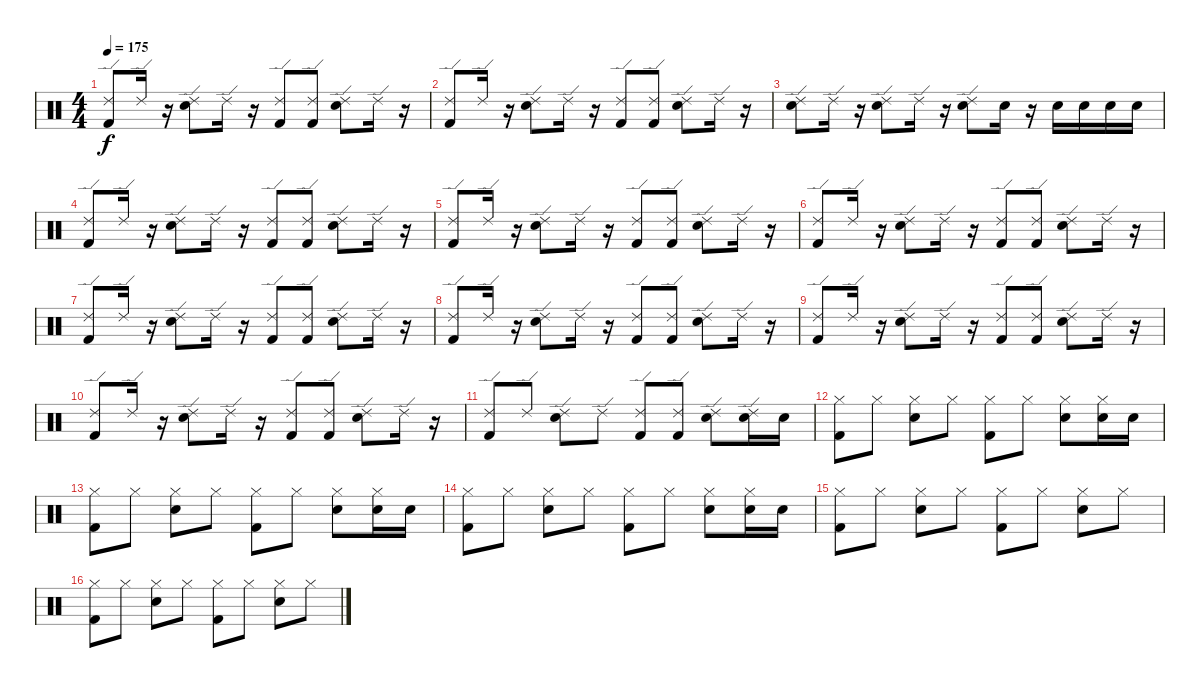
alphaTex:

\track "" {instrument percussion}
\staff {score}
\articulation defaults
\ts (4 4)
\tempo 175
\clef neutral
\ks c
("Ride (edge) 2" "Kick (hit) 2").8{dy f} "Ride (edge) 2".16 r.16 ("Ride (edge) 2" "Electric Snare (hit)").8 "Ride (edge) 2".16 r.16 ("Ride (edge) 2" "Kick (hit) 2").8 ("Ride (edge) 2" "Kick (hit) 2").8 ("Ride (edge) 2" "Electric Snare (hit)").8 "Ride (edge) 2".16 r.16 |
("Ride (edge) 2" "Kick (hit) 2").8 "Ride (edge) 2".16 r.16 ("Ride (edge) 2" "Electric Snare (hit)").8 "Ride (edge) 2".16 r.16 ("Ride (edge) 2" "Kick (hit) 2").8 ("Ride (edge) 2" "Kick (hit) 2").8 ("Ride (edge) 2" "Electric Snare (hit)").8 "Ride (edge) 2".16 r.16 |
("Ride (edge) 2" "Electric Snare (hit)").8 "Ride (edge) 2".16 r.16 ("Ride (edge) 2" "Electric Snare (hit)").8 "Ride (edge) 2".16 r.16 ("Ride (edge) 2" "Electric Snare (hit)").8 "Electric Snare (hit)".16 r.16 "Electric Snare (hit)".16 "Electric Snare (hit)".16 "Electric Snare (hit)".16 "Electric Snare (hit)".16 |
("Ride (edge) 2" "Kick (hit) 2").8 "Ride (edge) 2".16 r.16 ("Ride (edge) 2" "Electric Snare (hit)").8 "Ride (edge) 2".16 r.16 ("Ride (edge) 2" "Kick (hit) 2").8 ("Ride (edge) 2" "Kick (hit) 2").8 ("Ride (edge) 2" "Electric Snare (hit)").8 "Ride (edge) 2".16 r.16 |
("Ride (edge) 2" "Kick (hit) 2").8 "Ride (edge) 2".16 r.16 ("Ride (edge) 2" "Electric Snare (hit)").8 "Ride (edge) 2".16 r.16 ("Ride (edge) 2" "Kick (hit) 2").8 ("Ride (edge) 2" "Kick (hit) 2").8 ("Ride (edge) 2" "Electric Snare (hit)").8 "Ride (edge) 2".16 r.16 |
("Ride (edge) 2" "Kick (hit) 2").8 "Ride (edge) 2".16 r.16 ("Ride (edge) 2" "Electric Snare (hit)").8 "Ride (edge) 2".16 r.16 ("Ride (edge) 2" "Kick (hit) 2").8 ("Ride (edge) 2" "Kick (hit) 2").8 ("Ride (edge) 2" "Electric Snare (hit)").8 "Ride (edge) 2".16 r.16 |
("Ride (edge) 2" "Kick (hit) 2").8 "Ride (edge) 2".16 r.16 ("Ride (edge) 2" "Electric Snare (hit)").8 "Ride (edge) 2".16 r.16 ("Ride (edge) 2" "Kick (hit) 2").8 ("Ride (edge) 2" "Kick (hit) 2").8 ("Ride (edge) 2" "Electric Snare (hit)").8 "Ride (edge) 2".16 r.16 |
("Ride (edge) 2" "Kick (hit) 2").8 "Ride (edge) 2".16 r.16 ("Ride (edge) 2" "Electric Snare (hit)").8 "Ride (edge) 2".16 r.16 ("Ride (edge) 2" "Kick (hit) 2").8 ("Ride (edge) 2" "Kick (hit) 2").8 ("Ride (edge) 2" "Electric Snare (hit)").8 "Ride (edge) 2".16 r.16 |
("Ride (edge) 2" "Kick (hit) 2").8 "Ride (edge) 2".16 r.16 ("Ride (edge) 2" "Electric Snare (hit)").8 "Ride (edge) 2".16 r.16 ("Ride (edge) 2" "Kick (hit) 2").8 ("Ride (edge) 2" "Kick (hit) 2").8 ("Ride (edge) 2" "Electric Snare (hit)").8 "Ride (edge) 2".16 r.16 |
("Ride (edge) 2" "Kick (hit) 2").8 "Ride (edge) 2".16 r.16 ("Ride (edge) 2" "Electric Snare (hit)").8 "Ride (edge) 2".16 r.16 ("Ride (edge) 2" "Kick (hit) 2").8 ("Ride (edge) 2" "Kick (hit) 2").8 ("Ride (edge) 2" "Electric Snare (hit)").8 "Ride (edge) 2".16 r.16 |
("Ride (edge) 2" "Kick (hit) 2").8 "Ride (edge) 2".8 ("Ride (edge) 2" "Electric Snare (hit)").8 "Ride (edge) 2".8 ("Ride (edge) 2" "Kick (hit) 2").8 ("Ride (edge) 2" "Kick (hit) 2").8 ("Ride (edge) 2" "Electric Snare (hit)").8 ("Electric Snare (hit)" "Ride (edge) 2").16 "Electric Snare (hit)".16 |
("Hi-Hat (closed)" "Kick (hit) 2").8 "Hi-Hat (closed)".8 ("Electric Snare (hit)" "Hi-Hat (closed)").8 "Hi-Hat (closed)".8 ("Hi-Hat (closed)" "Kick (hit) 2").8 "Hi-Hat (closed)".8 ("Hi-Hat (closed)" "Electric Snare (hit)").8 ("Hi-Hat (closed)" "Electric Snare (hit)").16 "Electric Snare (hit)".16 |
("Hi-Hat (closed)" "Kick (hit) 2").8 "Hi-Hat (closed)".8 ("Hi-Hat (closed)" "Electric Snare (hit)").8 "Hi-Hat (closed)".8 ("Hi-Hat (closed)" "Kick (hit) 2").8 "Hi-Hat (closed)".8 ("Hi-Hat (closed)" "Electric Snare (hit)").8 ("Hi-Hat (closed)" "Electric Snare (hit)").16 "Electric Snare (hit)".16 |
("Hi-Hat (closed)" "Kick (hit) 2").8 "Hi-Hat (closed)".8 ("Hi-Hat (closed)" "Electric Snare (hit)").8 "Hi-Hat (closed)".8 ("Hi-Hat (closed)" "Kick (hit) 2").8 "Hi-Hat (closed)".8 ("Hi-Hat (closed)" "Electric Snare (hit)").8 ("Hi-Hat (closed)" "Electric Snare (hit)").16 "Electric Snare (hit)".16 |
("Hi-Hat (closed)" "Kick (hit) 2").8 "Hi-Hat (closed)".8 ("Hi-Hat (closed)" "Electric Snare (hit)").8 "Hi-Hat (closed)".8 ("Hi-Hat (closed)" "Kick (hit) 2").8 "Hi-Hat (closed)".8 ("Hi-Hat (closed)" "Electric Snare (hit)").8 "Hi-Hat (closed)".8 |
("Hi-Hat (closed)" "Kick (hit) 2").8 "Hi-Hat (closed)".8 ("Hi-Hat (closed)" "Electric Snare (hit)").8 "Hi-Hat (closed)".8 ("Hi-Hat (closed)" "Kick (hit) 2").8 "Hi-Hat (closed)".8 ("Hi-Hat (closed)" "Electric Snare (hit)").8 "Hi-Hat (closed)".8
